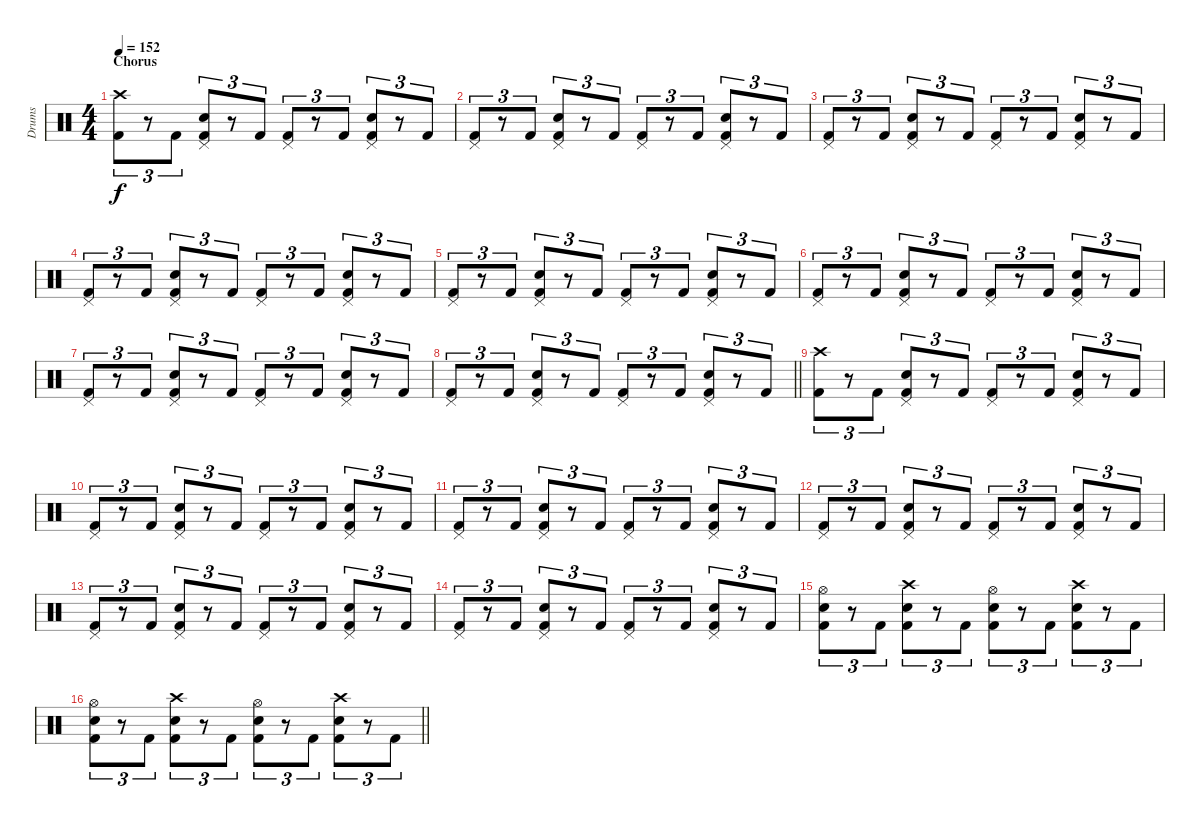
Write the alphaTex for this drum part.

\track ("Drums" "Drums") {instrument percussion}
\staff {score}
\articulation defaults
\ts (4 4)
\section ("" "Chorus")
\tempo 152
\clef neutral
\ks c
("Crash high (hit)" "Kick (hit) 2").8{tu (3 2) dy f} r.8{tu (3 2)} "Kick (hit) 2".8{tu (3 2)} ("Pedal Hi-Hat (hit)" "Snare (hit) 2" "Kick (hit) 2").8{tu (3 2)} r.8{tu (3 2)} "Kick (hit) 2".8{tu (3 2)} ("Pedal Hi-Hat (hit)" "Kick (hit) 2").8{tu (3 2)} r.8{tu (3 2)} "Kick (hit) 2".8{tu (3 2)} ("Pedal Hi-Hat (hit)" "Snare (hit) 2" "Kick (hit) 2").8{tu (3 2)} r.8{tu (3 2)} "Kick (hit) 2".8{tu (3 2)} |
("Pedal Hi-Hat (hit)" "Kick (hit) 2").8{tu (3 2)} r.8{tu (3 2)} "Kick (hit) 2".8{tu (3 2)} ("Pedal Hi-Hat (hit)" "Snare (hit) 2" "Kick (hit) 2").8{tu (3 2)} r.8{tu (3 2)} "Kick (hit) 2".8{tu (3 2)} ("Pedal Hi-Hat (hit)" "Kick (hit) 2").8{tu (3 2)} r.8{tu (3 2)} "Kick (hit) 2".8{tu (3 2)} ("Pedal Hi-Hat (hit)" "Snare (hit) 2" "Kick (hit) 2").8{tu (3 2)} r.8{tu (3 2)} "Kick (hit) 2".8{tu (3 2)} |
("Pedal Hi-Hat (hit)" "Kick (hit) 2").8{tu (3 2)} r.8{tu (3 2)} "Kick (hit) 2".8{tu (3 2)} ("Pedal Hi-Hat (hit)" "Snare (hit) 2" "Kick (hit) 2").8{tu (3 2)} r.8{tu (3 2)} "Kick (hit) 2".8{tu (3 2)} ("Pedal Hi-Hat (hit)" "Kick (hit) 2").8{tu (3 2)} r.8{tu (3 2)} "Kick (hit) 2".8{tu (3 2)} ("Pedal Hi-Hat (hit)" "Snare (hit) 2" "Kick (hit) 2").8{tu (3 2)} r.8{tu (3 2)} "Kick (hit) 2".8{tu (3 2)} |
("Pedal Hi-Hat (hit)" "Kick (hit) 2").8{tu (3 2)} r.8{tu (3 2)} "Kick (hit) 2".8{tu (3 2)} ("Pedal Hi-Hat (hit)" "Snare (hit) 2" "Kick (hit) 2").8{tu (3 2)} r.8{tu (3 2)} "Kick (hit) 2".8{tu (3 2)} ("Pedal Hi-Hat (hit)" "Kick (hit) 2").8{tu (3 2)} r.8{tu (3 2)} "Kick (hit) 2".8{tu (3 2)} ("Pedal Hi-Hat (hit)" "Snare (hit) 2" "Kick (hit) 2").8{tu (3 2)} r.8{tu (3 2)} "Kick (hit) 2".8{tu (3 2)} |
("Pedal Hi-Hat (hit)" "Kick (hit) 2").8{tu (3 2)} r.8{tu (3 2)} "Kick (hit) 2".8{tu (3 2)} ("Pedal Hi-Hat (hit)" "Snare (hit) 2" "Kick (hit) 2").8{tu (3 2)} r.8{tu (3 2)} "Kick (hit) 2".8{tu (3 2)} ("Pedal Hi-Hat (hit)" "Kick (hit) 2").8{tu (3 2)} r.8{tu (3 2)} "Kick (hit) 2".8{tu (3 2)} ("Pedal Hi-Hat (hit)" "Snare (hit) 2" "Kick (hit) 2").8{tu (3 2)} r.8{tu (3 2)} "Kick (hit) 2".8{tu (3 2)} |
("Pedal Hi-Hat (hit)" "Kick (hit) 2").8{tu (3 2)} r.8{tu (3 2)} "Kick (hit) 2".8{tu (3 2)} ("Pedal Hi-Hat (hit)" "Snare (hit) 2" "Kick (hit) 2").8{tu (3 2)} r.8{tu (3 2)} "Kick (hit) 2".8{tu (3 2)} ("Pedal Hi-Hat (hit)" "Kick (hit) 2").8{tu (3 2)} r.8{tu (3 2)} "Kick (hit) 2".8{tu (3 2)} ("Pedal Hi-Hat (hit)" "Snare (hit) 2" "Kick (hit) 2").8{tu (3 2)} r.8{tu (3 2)} "Kick (hit) 2".8{tu (3 2)} |
("Pedal Hi-Hat (hit)" "Kick (hit) 2").8{tu (3 2)} r.8{tu (3 2)} "Kick (hit) 2".8{tu (3 2)} ("Pedal Hi-Hat (hit)" "Snare (hit) 2" "Kick (hit) 2").8{tu (3 2)} r.8{tu (3 2)} "Kick (hit) 2".8{tu (3 2)} ("Pedal Hi-Hat (hit)" "Kick (hit) 2").8{tu (3 2)} r.8{tu (3 2)} "Kick (hit) 2".8{tu (3 2)} ("Pedal Hi-Hat (hit)" "Snare (hit) 2" "Kick (hit) 2").8{tu (3 2)} r.8{tu (3 2)} "Kick (hit) 2".8{tu (3 2)} |
\barLineRight lightlight
("Pedal Hi-Hat (hit)" "Kick (hit) 2").8{tu (3 2)} r.8{tu (3 2)} "Kick (hit) 2".8{tu (3 2)} ("Pedal Hi-Hat (hit)" "Snare (hit) 2" "Kick (hit) 2").8{tu (3 2)} r.8{tu (3 2)} "Kick (hit) 2".8{tu (3 2)} ("Pedal Hi-Hat (hit)" "Kick (hit) 2").8{tu (3 2)} r.8{tu (3 2)} "Kick (hit) 2".8{tu (3 2)} ("Pedal Hi-Hat (hit)" "Snare (hit) 2" "Kick (hit) 2").8{tu (3 2)} r.8{tu (3 2)} "Kick (hit) 2".8{tu (3 2)} |
("Crash high (hit)" "Kick (hit) 2").8{tu (3 2)} r.8{tu (3 2)} "Kick (hit) 2".8{tu (3 2)} ("Pedal Hi-Hat (hit)" "Snare (hit) 2" "Kick (hit) 2").8{tu (3 2)} r.8{tu (3 2)} "Kick (hit) 2".8{tu (3 2)} ("Pedal Hi-Hat (hit)" "Kick (hit) 2").8{tu (3 2)} r.8{tu (3 2)} "Kick (hit) 2".8{tu (3 2)} ("Pedal Hi-Hat (hit)" "Snare (hit) 2" "Kick (hit) 2").8{tu (3 2)} r.8{tu (3 2)} "Kick (hit) 2".8{tu (3 2)} |
("Pedal Hi-Hat (hit)" "Kick (hit) 2").8{tu (3 2)} r.8{tu (3 2)} "Kick (hit) 2".8{tu (3 2)} ("Pedal Hi-Hat (hit)" "Snare (hit) 2" "Kick (hit) 2").8{tu (3 2)} r.8{tu (3 2)} "Kick (hit) 2".8{tu (3 2)} ("Pedal Hi-Hat (hit)" "Kick (hit) 2").8{tu (3 2)} r.8{tu (3 2)} "Kick (hit) 2".8{tu (3 2)} ("Pedal Hi-Hat (hit)" "Snare (hit) 2" "Kick (hit) 2").8{tu (3 2)} r.8{tu (3 2)} "Kick (hit) 2".8{tu (3 2)} |
("Pedal Hi-Hat (hit)" "Kick (hit) 2").8{tu (3 2)} r.8{tu (3 2)} "Kick (hit) 2".8{tu (3 2)} ("Pedal Hi-Hat (hit)" "Snare (hit) 2" "Kick (hit) 2").8{tu (3 2)} r.8{tu (3 2)} "Kick (hit) 2".8{tu (3 2)} ("Pedal Hi-Hat (hit)" "Kick (hit) 2").8{tu (3 2)} r.8{tu (3 2)} "Kick (hit) 2".8{tu (3 2)} ("Pedal Hi-Hat (hit)" "Snare (hit) 2" "Kick (hit) 2").8{tu (3 2)} r.8{tu (3 2)} "Kick (hit) 2".8{tu (3 2)} |
("Pedal Hi-Hat (hit)" "Kick (hit) 2").8{tu (3 2)} r.8{tu (3 2)} "Kick (hit) 2".8{tu (3 2)} ("Pedal Hi-Hat (hit)" "Snare (hit) 2" "Kick (hit) 2").8{tu (3 2)} r.8{tu (3 2)} "Kick (hit) 2".8{tu (3 2)} ("Pedal Hi-Hat (hit)" "Kick (hit) 2").8{tu (3 2)} r.8{tu (3 2)} "Kick (hit) 2".8{tu (3 2)} ("Pedal Hi-Hat (hit)" "Snare (hit) 2" "Kick (hit) 2").8{tu (3 2)} r.8{tu (3 2)} "Kick (hit) 2".8{tu (3 2)} |
("Pedal Hi-Hat (hit)" "Kick (hit) 2").8{tu (3 2)} r.8{tu (3 2)} "Kick (hit) 2".8{tu (3 2)} ("Pedal Hi-Hat (hit)" "Snare (hit) 2" "Kick (hit) 2").8{tu (3 2)} r.8{tu (3 2)} "Kick (hit) 2".8{tu (3 2)} ("Pedal Hi-Hat (hit)" "Kick (hit) 2").8{tu (3 2)} r.8{tu (3 2)} "Kick (hit) 2".8{tu (3 2)} ("Pedal Hi-Hat (hit)" "Snare (hit) 2" "Kick (hit) 2").8{tu (3 2)} r.8{tu (3 2)} "Kick (hit) 2".8{tu (3 2)} |
("Pedal Hi-Hat (hit)" "Kick (hit) 2").8{tu (3 2)} r.8{tu (3 2)} "Kick (hit) 2".8{tu (3 2)} ("Pedal Hi-Hat (hit)" "Snare (hit) 2" "Kick (hit) 2").8{tu (3 2)} r.8{tu (3 2)} "Kick (hit) 2".8{tu (3 2)} ("Pedal Hi-Hat (hit)" "Kick (hit) 2").8{tu (3 2)} r.8{tu (3 2)} "Kick (hit) 2".8{tu (3 2)} ("Pedal Hi-Hat (hit)" "Snare (hit) 2" "Kick (hit) 2").8{tu (3 2)} r.8{tu (3 2)} "Kick (hit) 2".8{tu (3 2)} |
("Hi-Hat (open)" "Snare (hit) 2" "Kick (hit) 2").8{tu (3 2)} r.8{tu (3 2)} "Kick (hit) 2".8{tu (3 2)} ("Crash high (hit)" "Snare (hit) 2" "Kick (hit) 2").8{tu (3 2)} r.8{tu (3 2)} "Kick (hit) 2".8{tu (3 2)} ("Hi-Hat (open)" "Snare (hit) 2" "Kick (hit) 2").8{tu (3 2)} r.8{tu (3 2)} "Kick (hit) 2".8{tu (3 2)} ("Crash high (hit)" "Snare (hit) 2" "Kick (hit) 2").8{tu (3 2)} r.8{tu (3 2)} "Kick (hit) 2".8{tu (3 2)} |
\barLineRight lightlight
("Hi-Hat (open)" "Snare (hit) 2" "Kick (hit) 2").8{tu (3 2)} r.8{tu (3 2)} "Kick (hit) 2".8{tu (3 2)} ("Crash high (hit)" "Snare (hit) 2" "Kick (hit) 2").8{tu (3 2)} r.8{tu (3 2)} "Kick (hit) 2".8{tu (3 2)} ("Hi-Hat (open)" "Snare (hit) 2" "Kick (hit) 2").8{tu (3 2)} r.8{tu (3 2)} "Kick (hit) 2".8{tu (3 2)} ("Crash high (hit)" "Snare (hit) 2" "Kick (hit) 2").8{tu (3 2)} r.8{tu (3 2)} "Kick (hit) 2".8{tu (3 2)}
